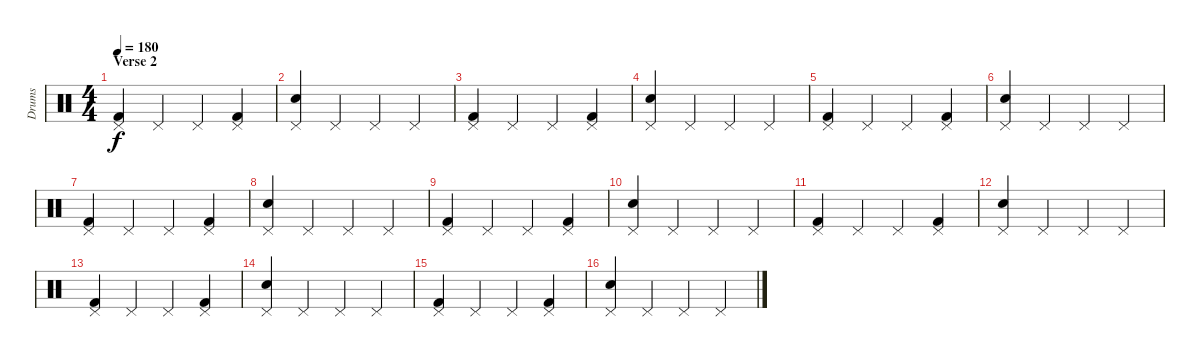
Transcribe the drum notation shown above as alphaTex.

\track ("Drums" "Drums") {instrument percussion}
\staff {score}
\articulation defaults
\ts (4 4)
\section ("" "Verse 2")
\tempo 180
\clef neutral
\ks c
("Kick (hit) 2" "Pedal Hi-Hat (hit)").4{dy f} "Pedal Hi-Hat (hit)".4 "Pedal Hi-Hat (hit)".4 ("Kick (hit) 2" "Pedal Hi-Hat (hit)").4 |
("Electric Snare (hit)" "Pedal Hi-Hat (hit)").4 "Pedal Hi-Hat (hit)".4 "Pedal Hi-Hat (hit)".4 "Pedal Hi-Hat (hit)".4 |
("Kick (hit) 2" "Pedal Hi-Hat (hit)").4 "Pedal Hi-Hat (hit)".4 "Pedal Hi-Hat (hit)".4 ("Kick (hit) 2" "Pedal Hi-Hat (hit)").4 |
("Electric Snare (hit)" "Pedal Hi-Hat (hit)").4 "Pedal Hi-Hat (hit)".4 "Pedal Hi-Hat (hit)".4 "Pedal Hi-Hat (hit)".4 |
("Kick (hit) 2" "Pedal Hi-Hat (hit)").4 "Pedal Hi-Hat (hit)".4 "Pedal Hi-Hat (hit)".4 ("Kick (hit) 2" "Pedal Hi-Hat (hit)").4 |
("Electric Snare (hit)" "Pedal Hi-Hat (hit)").4 "Pedal Hi-Hat (hit)".4 "Pedal Hi-Hat (hit)".4 "Pedal Hi-Hat (hit)".4 |
("Kick (hit) 2" "Pedal Hi-Hat (hit)").4 "Pedal Hi-Hat (hit)".4 "Pedal Hi-Hat (hit)".4 ("Kick (hit) 2" "Pedal Hi-Hat (hit)").4 |
("Electric Snare (hit)" "Pedal Hi-Hat (hit)").4 "Pedal Hi-Hat (hit)".4 "Pedal Hi-Hat (hit)".4 "Pedal Hi-Hat (hit)".4 |
("Kick (hit) 2" "Pedal Hi-Hat (hit)").4 "Pedal Hi-Hat (hit)".4 "Pedal Hi-Hat (hit)".4 ("Kick (hit) 2" "Pedal Hi-Hat (hit)").4 |
("Electric Snare (hit)" "Pedal Hi-Hat (hit)").4 "Pedal Hi-Hat (hit)".4 "Pedal Hi-Hat (hit)".4 "Pedal Hi-Hat (hit)".4 |
("Kick (hit) 2" "Pedal Hi-Hat (hit)").4 "Pedal Hi-Hat (hit)".4 "Pedal Hi-Hat (hit)".4 ("Kick (hit) 2" "Pedal Hi-Hat (hit)").4 |
("Electric Snare (hit)" "Pedal Hi-Hat (hit)").4 "Pedal Hi-Hat (hit)".4 "Pedal Hi-Hat (hit)".4 "Pedal Hi-Hat (hit)".4 |
("Kick (hit) 2" "Pedal Hi-Hat (hit)").4 "Pedal Hi-Hat (hit)".4 "Pedal Hi-Hat (hit)".4 ("Kick (hit) 2" "Pedal Hi-Hat (hit)").4 |
("Electric Snare (hit)" "Pedal Hi-Hat (hit)").4 "Pedal Hi-Hat (hit)".4 "Pedal Hi-Hat (hit)".4 "Pedal Hi-Hat (hit)".4 |
("Kick (hit) 2" "Pedal Hi-Hat (hit)").4 "Pedal Hi-Hat (hit)".4 "Pedal Hi-Hat (hit)".4 ("Kick (hit) 2" "Pedal Hi-Hat (hit)").4 |
("Electric Snare (hit)" "Pedal Hi-Hat (hit)").4 "Pedal Hi-Hat (hit)".4 "Pedal Hi-Hat (hit)".4 "Pedal Hi-Hat (hit)".4
